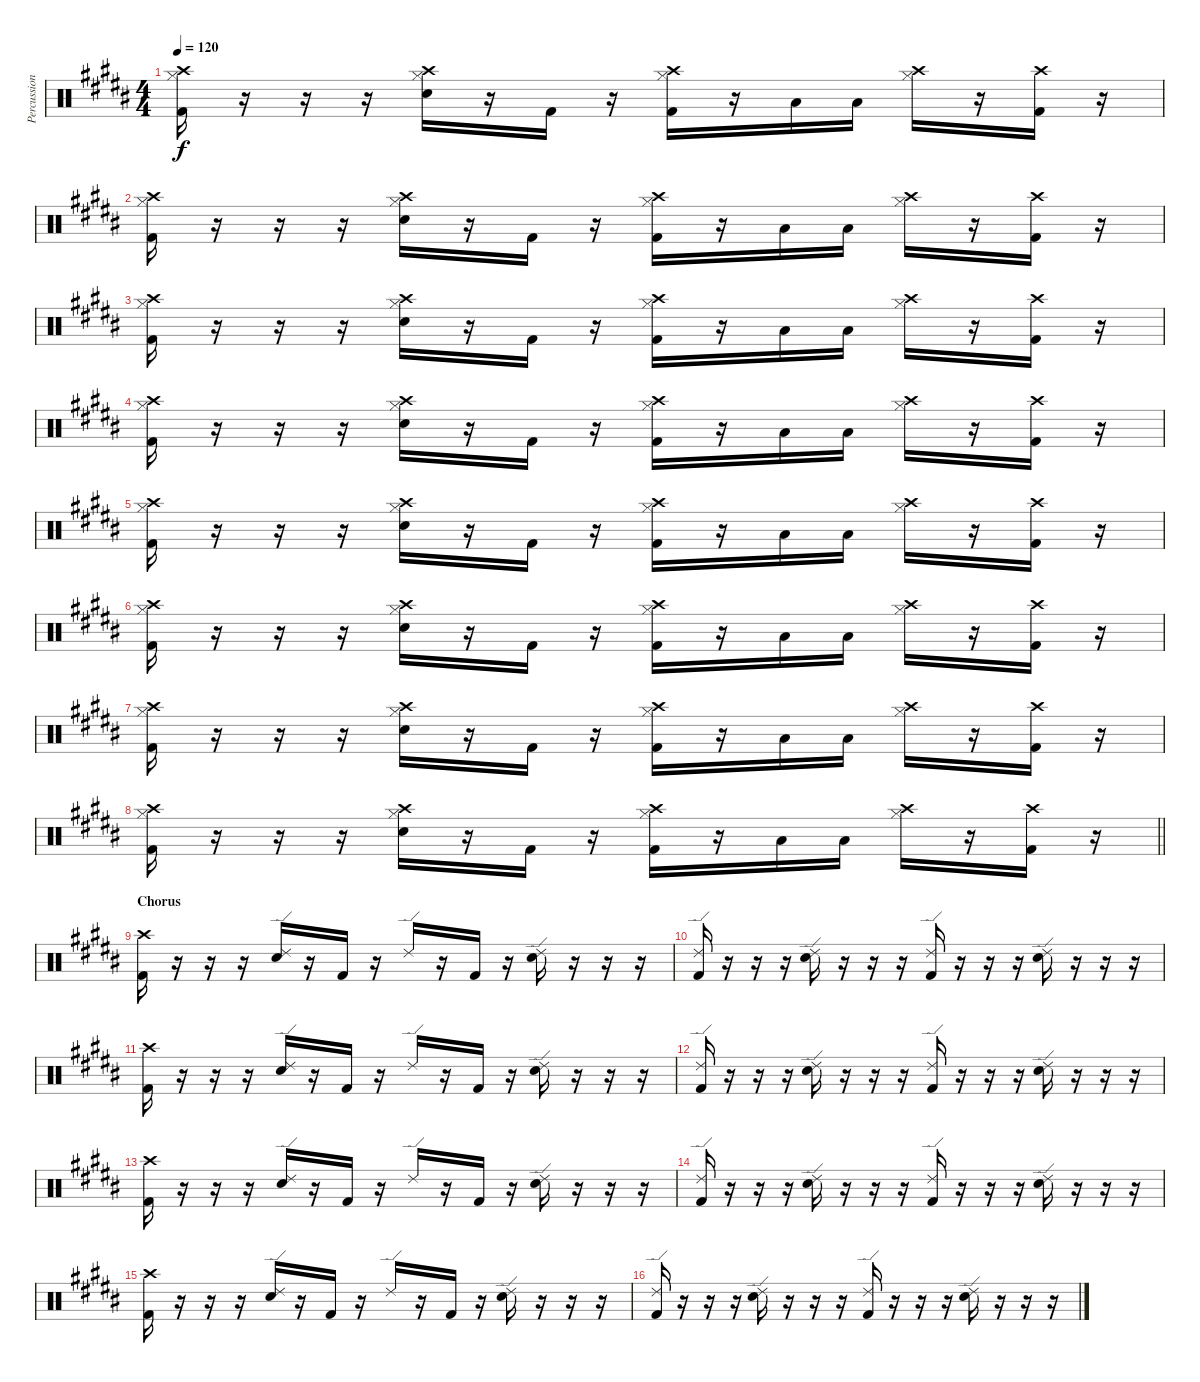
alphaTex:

\track ("Percussion" "Percussion") {instrument percussion}
\staff {score}
\articulation defaults
\ts (4 4)
\tempo 120
\clef neutral
\ks b
("Crash high (hit)" "Hi-Hat (closed)" "Kick (hit) 2").16{dy f} r.16 r.16 r.16 ("Crash high (hit)" "Hi-Hat (closed)" "Electric Snare (hit)").16 r.16 "Kick (hit) 2".16 r.16 ("Crash high (hit)" "Hi-Hat (closed)" "Kick (hit) 2").16 r.16 "Low Tom (hit)".16 "Low Tom (hit)".16 ("Crash high (hit)" "Hi-Hat (closed)").16 r.16 ("Crash high (hit)" "Kick (hit) 2").16 r.16 |
("Crash high (hit)" "Hi-Hat (closed)" "Kick (hit) 2").16 r.16 r.16 r.16 ("Crash high (hit)" "Hi-Hat (closed)" "Electric Snare (hit)").16 r.16 "Kick (hit) 2".16 r.16 ("Crash high (hit)" "Hi-Hat (closed)" "Kick (hit) 2").16 r.16 "Low Tom (hit)".16 "Low Tom (hit)".16 ("Crash high (hit)" "Hi-Hat (closed)").16 r.16 ("Crash high (hit)" "Kick (hit) 2").16 r.16 |
("Crash high (hit)" "Hi-Hat (closed)" "Kick (hit) 2").16 r.16 r.16 r.16 ("Crash high (hit)" "Hi-Hat (closed)" "Electric Snare (hit)").16 r.16 "Kick (hit) 2".16 r.16 ("Crash high (hit)" "Hi-Hat (closed)" "Kick (hit) 2").16 r.16 "Low Tom (hit)".16 "Low Tom (hit)".16 ("Crash high (hit)" "Hi-Hat (closed)").16 r.16 ("Crash high (hit)" "Kick (hit) 2").16 r.16 |
("Crash high (hit)" "Hi-Hat (closed)" "Kick (hit) 2").16 r.16 r.16 r.16 ("Crash high (hit)" "Hi-Hat (closed)" "Electric Snare (hit)").16 r.16 "Kick (hit) 2".16 r.16 ("Crash high (hit)" "Hi-Hat (closed)" "Kick (hit) 2").16 r.16 "Low Tom (hit)".16 "Low Tom (hit)".16 ("Crash high (hit)" "Hi-Hat (closed)").16 r.16 ("Crash high (hit)" "Kick (hit) 2").16 r.16 |
("Crash high (hit)" "Hi-Hat (closed)" "Kick (hit) 2").16 r.16 r.16 r.16 ("Crash high (hit)" "Hi-Hat (closed)" "Electric Snare (hit)").16 r.16 "Kick (hit) 2".16 r.16 ("Crash high (hit)" "Hi-Hat (closed)" "Kick (hit) 2").16 r.16 "Low Tom (hit)".16 "Low Tom (hit)".16 ("Crash high (hit)" "Hi-Hat (closed)").16 r.16 ("Crash high (hit)" "Kick (hit) 2").16 r.16 |
("Crash high (hit)" "Hi-Hat (closed)" "Kick (hit) 2").16 r.16 r.16 r.16 ("Crash high (hit)" "Hi-Hat (closed)" "Electric Snare (hit)").16 r.16 "Kick (hit) 2".16 r.16 ("Crash high (hit)" "Hi-Hat (closed)" "Kick (hit) 2").16 r.16 "Low Tom (hit)".16 "Low Tom (hit)".16 ("Crash high (hit)" "Hi-Hat (closed)").16 r.16 ("Crash high (hit)" "Kick (hit) 2").16 r.16 |
("Crash high (hit)" "Hi-Hat (closed)" "Kick (hit) 2").16 r.16 r.16 r.16 ("Crash high (hit)" "Hi-Hat (closed)" "Electric Snare (hit)").16 r.16 "Kick (hit) 2".16 r.16 ("Crash high (hit)" "Hi-Hat (closed)" "Kick (hit) 2").16 r.16 "Low Tom (hit)".16 "Low Tom (hit)".16 ("Crash high (hit)" "Hi-Hat (closed)").16 r.16 ("Crash high (hit)" "Kick (hit) 2").16 r.16 |
\barLineRight lightlight
("Crash high (hit)" "Hi-Hat (closed)" "Kick (hit) 2").16 r.16 r.16 r.16 ("Crash high (hit)" "Hi-Hat (closed)" "Electric Snare (hit)").16 r.16 "Kick (hit) 2".16 r.16 ("Crash high (hit)" "Hi-Hat (closed)" "Kick (hit) 2").16 r.16 "Low Tom (hit)".16 "Low Tom (hit)".16 ("Crash high (hit)" "Hi-Hat (closed)").16 r.16 ("Crash high (hit)" "Kick (hit) 2").16 r.16 |
\section ("" "Chorus")
("Crash high (hit)" "Kick (hit) 2").16 r.16 r.16 r.16 ("Ride (edge) 2" "Electric Snare (hit)").16 r.16 "Kick (hit) 2".16 r.16 "Ride (edge) 2".16 r.16 "Kick (hit) 2".16 r.16 ("Ride (edge) 2" "Electric Snare (hit)").16 r.16 r.16 r.16 |
("Ride (edge) 2" "Kick (hit) 2").16 r.16 r.16 r.16 ("Ride (edge) 2" "Electric Snare (hit)").16 r.16 r.16 r.16 ("Ride (edge) 2" "Kick (hit) 2").16 r.16 r.16 r.16 ("Ride (edge) 2" "Electric Snare (hit)").16 r.16 r.16 r.16 |
("Crash high (hit)" "Kick (hit) 2").16 r.16 r.16 r.16 ("Ride (edge) 2" "Electric Snare (hit)").16 r.16 "Kick (hit) 2".16 r.16 "Ride (edge) 2".16 r.16 "Kick (hit) 2".16 r.16 ("Ride (edge) 2" "Electric Snare (hit)").16 r.16 r.16 r.16 |
("Ride (edge) 2" "Kick (hit) 2").16 r.16 r.16 r.16 ("Ride (edge) 2" "Electric Snare (hit)").16 r.16 r.16 r.16 ("Ride (edge) 2" "Kick (hit) 2").16 r.16 r.16 r.16 ("Ride (edge) 2" "Electric Snare (hit)").16 r.16 r.16 r.16 |
("Crash high (hit)" "Kick (hit) 2").16 r.16 r.16 r.16 ("Ride (edge) 2" "Electric Snare (hit)").16 r.16 "Kick (hit) 2".16 r.16 "Ride (edge) 2".16 r.16 "Kick (hit) 2".16 r.16 ("Ride (edge) 2" "Electric Snare (hit)").16 r.16 r.16 r.16 |
("Ride (edge) 2" "Kick (hit) 2").16 r.16 r.16 r.16 ("Ride (edge) 2" "Electric Snare (hit)").16 r.16 r.16 r.16 ("Ride (edge) 2" "Kick (hit) 2").16 r.16 r.16 r.16 ("Ride (edge) 2" "Electric Snare (hit)").16 r.16 r.16 r.16 |
("Crash high (hit)" "Kick (hit) 2").16 r.16 r.16 r.16 ("Ride (edge) 2" "Electric Snare (hit)").16 r.16 "Kick (hit) 2".16 r.16 "Ride (edge) 2".16 r.16 "Kick (hit) 2".16 r.16 ("Ride (edge) 2" "Electric Snare (hit)").16 r.16 r.16 r.16 |
("Ride (edge) 2" "Kick (hit) 2").16 r.16 r.16 r.16 ("Ride (edge) 2" "Electric Snare (hit)").16 r.16 r.16 r.16 ("Ride (edge) 2" "Kick (hit) 2").16 r.16 r.16 r.16 ("Ride (edge) 2" "Electric Snare (hit)").16 r.16 r.16 r.16
